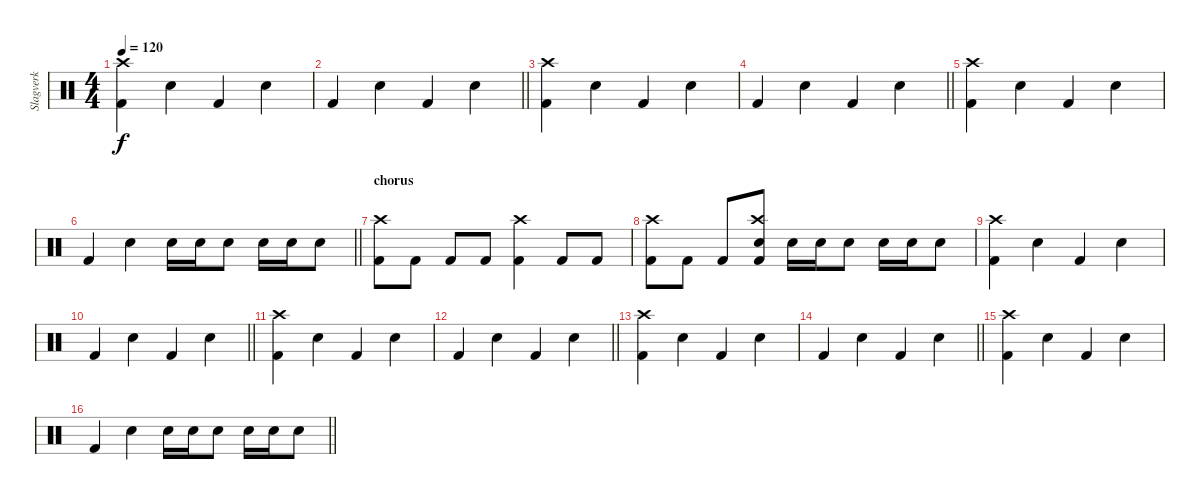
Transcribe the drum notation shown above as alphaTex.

\track ("Slagverk" "Slagverk") {instrument percussion}
\staff {score}
\articulation defaults
\ts (4 4)
\tempo 120
\clef neutral
\ks c
("Kick (hit) 2" "Crash high (hit)").4{dy f} "Snare (hit) 2".4 "Kick (hit) 2".4 "Snare (hit) 2".4 |
\barLineRight lightlight "Kick (hit) 2".4 "Snare (hit) 2".4 "Kick (hit) 2".4 "Snare (hit) 2".4
|
("Kick (hit) 2" "Crash high (hit)").4 "Snare (hit) 2".4 "Kick (hit) 2".4 "Snare (hit) 2".4 |
\barLineRight lightlight "Kick (hit) 2".4 "Snare (hit) 2".4 "Kick (hit) 2".4 "Snare (hit) 2".4
|
("Kick (hit) 2" "Crash high (hit)").4 "Snare (hit) 2".4 "Kick (hit) 2".4 "Snare (hit) 2".4 |
\barLineRight lightlight "Kick (hit) 2".4 "Snare (hit) 2".4 "Snare (hit) 2".16 "Snare (hit) 2".16 "Snare (hit) 2".8 "Snare (hit) 2".16 "Snare (hit) 2".16 "Snare (hit) 2".8
|
\section ("" "chorus")
("Kick (hit) 2" "Crash high (hit)").8 "Kick (hit) 2".8 "Kick (hit) 2".8 "Kick (hit) 2".8 ("Kick (hit) 2" "Crash high (hit)").4 "Kick (hit) 2".8 "Kick (hit) 2".8 |
("Kick (hit) 2" "Crash high (hit)").8 "Kick (hit) 2".8 "Kick (hit) 2".8 ("Snare (hit) 2" "Crash high (hit)" "Kick (hit) 2").8 "Snare (hit) 2".16 "Snare (hit) 2".16 "Snare (hit) 2".8 "Snare (hit) 2".16 "Snare (hit) 2".16 "Snare (hit) 2".8 |
("Kick (hit) 2" "Crash high (hit)").4 "Snare (hit) 2".4 "Kick (hit) 2".4 "Snare (hit) 2".4 |
\barLineRight lightlight "Kick (hit) 2".4 "Snare (hit) 2".4 "Kick (hit) 2".4 "Snare (hit) 2".4
|
("Kick (hit) 2" "Crash high (hit)").4 "Snare (hit) 2".4 "Kick (hit) 2".4 "Snare (hit) 2".4 |
\barLineRight lightlight "Kick (hit) 2".4 "Snare (hit) 2".4 "Kick (hit) 2".4 "Snare (hit) 2".4
|
("Kick (hit) 2" "Crash high (hit)").4 "Snare (hit) 2".4 "Kick (hit) 2".4 "Snare (hit) 2".4 |
\barLineRight lightlight "Kick (hit) 2".4 "Snare (hit) 2".4 "Kick (hit) 2".4 "Snare (hit) 2".4
|
("Kick (hit) 2" "Crash high (hit)").4 "Snare (hit) 2".4 "Kick (hit) 2".4 "Snare (hit) 2".4 |
\barLineRight lightlight "Kick (hit) 2".4 "Snare (hit) 2".4 "Snare (hit) 2".16 "Snare (hit) 2".16 "Snare (hit) 2".8 "Snare (hit) 2".16 "Snare (hit) 2".16 "Snare (hit) 2".8
